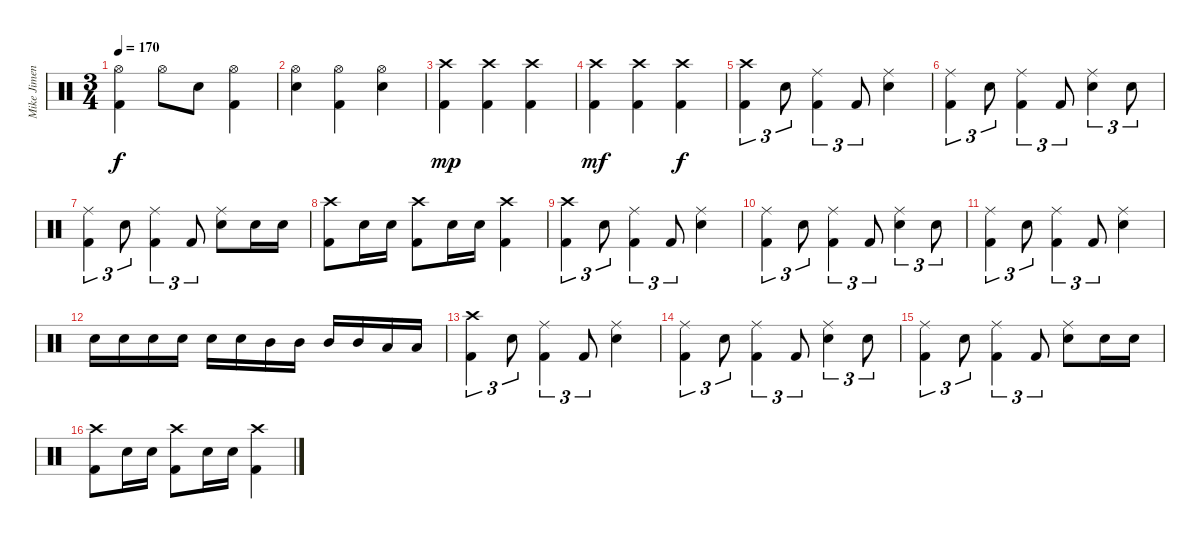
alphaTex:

\track ("Mike Jimenez" "Mike Jimen") {instrument percussion}
\staff {score}
\articulation defaults
\ts (3 4)
\tempo 170
\clef neutral
\ks c
("Hi-Hat (open)" "Kick (hit) 2").4{dy f} "Hi-Hat (open)".8 "Electric Snare (hit)".8 ("Hi-Hat (open)" "Kick (hit) 2").4 |
("Hi-Hat (open)" "Electric Snare (hit)").4 ("Hi-Hat (open)" "Kick (hit) 2").4 ("Hi-Hat (open)" "Electric Snare (hit)").4 |
("Crash high (hit)" "Kick (hit) 2").4{dy mp} ("Crash high (hit)" "Kick (hit) 2").4 ("Crash high (hit)" "Kick (hit) 2").4 |
("Crash high (hit)" "Kick (hit) 2").4{dy mf} ("Crash high (hit)" "Kick (hit) 2").4 ("Crash high (hit)" "Kick (hit) 2").4{dy f} |
("Crash high (hit)" "Kick (hit) 2").4{tu (3 2)} "Electric Snare (hit)".8{tu (3 2)} ("Ride (middle)" "Kick (hit) 2").4{tu (3 2)} "Kick (hit) 2".8{tu (3 2)} ("Ride (middle)" "Electric Snare (hit)").4 |
("Ride (middle)" "Kick (hit) 2").4{tu (3 2)} "Electric Snare (hit)".8{tu (3 2)} ("Ride (middle)" "Kick (hit) 2").4{tu (3 2)} "Kick (hit) 2".8{tu (3 2)} ("Ride (middle)" "Electric Snare (hit)").4{tu (3 2)} "Electric Snare (hit)".8{tu (3 2)} |
("Ride (middle)" "Kick (hit) 2").4{tu (3 2)} "Electric Snare (hit)".8{tu (3 2)} ("Ride (middle)" "Kick (hit) 2").4{tu (3 2)} "Kick (hit) 2".8{tu (3 2)} ("Ride (middle)" "Electric Snare (hit)").8 "Electric Snare (hit)".16 "Electric Snare (hit)".16 |
("Crash high (hit)" "Kick (hit) 2").8 "Electric Snare (hit)".16 "Electric Snare (hit)".16 ("Crash high (hit)" "Kick (hit) 2").8 "Electric Snare (hit)".16 "Electric Snare (hit)".16 ("Crash high (hit)" "Kick (hit) 2").4 |
("Crash high (hit)" "Kick (hit) 2").4{tu (3 2)} "Electric Snare (hit)".8{tu (3 2)} ("Ride (middle)" "Kick (hit) 2").4{tu (3 2)} "Kick (hit) 2".8{tu (3 2)} ("Ride (middle)" "Electric Snare (hit)").4 |
("Ride (middle)" "Kick (hit) 2").4{tu (3 2)} "Electric Snare (hit)".8{tu (3 2)} ("Ride (middle)" "Kick (hit) 2").4{tu (3 2)} "Kick (hit) 2".8{tu (3 2)} ("Ride (middle)" "Electric Snare (hit)").4{tu (3 2)} "Electric Snare (hit)".8{tu (3 2)} |
("Ride (middle)" "Kick (hit) 2").4{tu (3 2)} "Electric Snare (hit)".8{tu (3 2)} ("Ride (middle)" "Kick (hit) 2").4{tu (3 2)} "Kick (hit) 2".8{tu (3 2)} ("Ride (middle)" "Electric Snare (hit)").4 |
"Electric Snare (hit)".16 "Electric Snare (hit)".16 "Electric Snare (hit)".16 "Electric Snare (hit)".16 "Electric Snare (hit)".16 "Electric Snare (hit)".16 "Mid Tom (hit)".16 "Mid Tom (hit)".16 "Mid Tom (hit)".16 "Mid Tom (hit)".16 "Low Tom (hit)".16 "Low Tom (hit)".16 |
("Crash high (hit)" "Kick (hit) 2").4{tu (3 2)} "Electric Snare (hit)".8{tu (3 2)} ("Ride (middle)" "Kick (hit) 2").4{tu (3 2)} "Kick (hit) 2".8{tu (3 2)} ("Ride (middle)" "Electric Snare (hit)").4 |
("Ride (middle)" "Kick (hit) 2").4{tu (3 2)} "Electric Snare (hit)".8{tu (3 2)} ("Ride (middle)" "Kick (hit) 2").4{tu (3 2)} "Kick (hit) 2".8{tu (3 2)} ("Ride (middle)" "Electric Snare (hit)").4{tu (3 2)} "Electric Snare (hit)".8{tu (3 2)} |
("Ride (middle)" "Kick (hit) 2").4{tu (3 2)} "Electric Snare (hit)".8{tu (3 2)} ("Ride (middle)" "Kick (hit) 2").4{tu (3 2)} "Kick (hit) 2".8{tu (3 2)} ("Ride (middle)" "Electric Snare (hit)").8 "Electric Snare (hit)".16 "Electric Snare (hit)".16 |
("Crash high (hit)" "Kick (hit) 2").8 "Electric Snare (hit)".16 "Electric Snare (hit)".16 ("Crash high (hit)" "Kick (hit) 2").8 "Electric Snare (hit)".16 "Electric Snare (hit)".16 ("Crash high (hit)" "Kick (hit) 2").4
